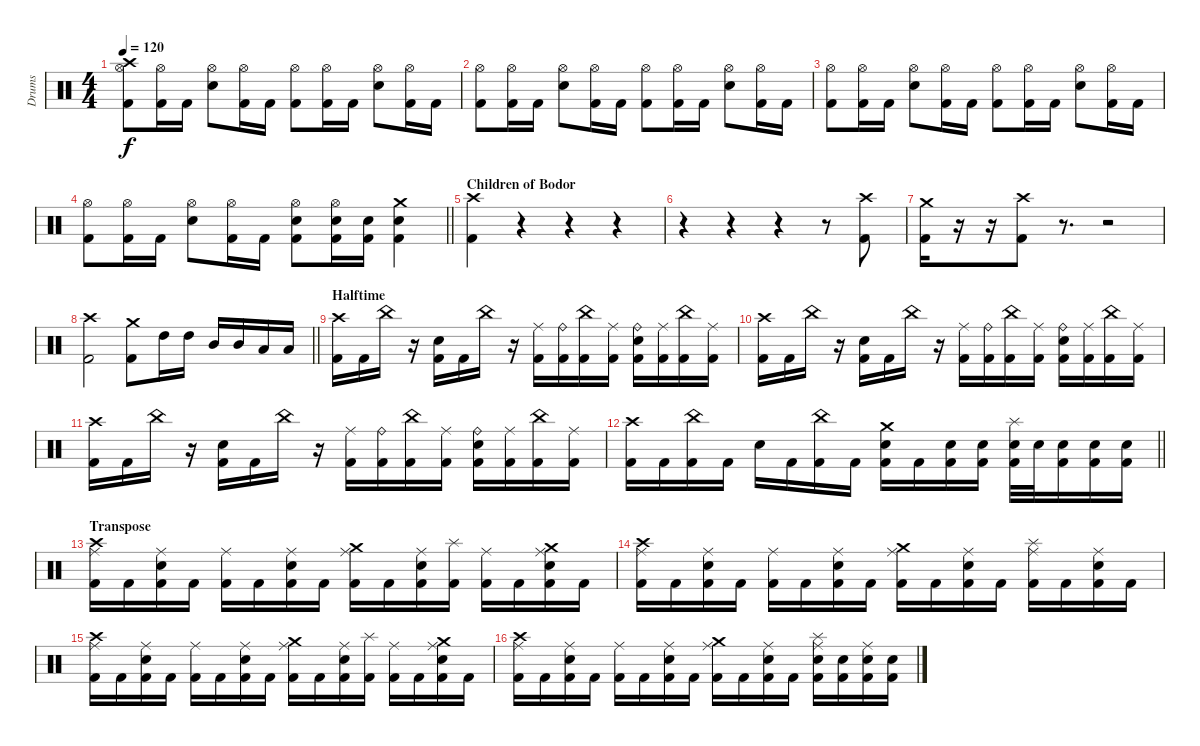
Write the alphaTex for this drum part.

\track ("Drums" "Drums") {instrument percussion}
\staff {score}
\articulation defaults
\ts (4 4)
\tempo 120
\clef neutral
\ks c
("Crash high (hit)" "Hi-Hat (open)" "Kick (hit) 2").8{dy f} ("Hi-Hat (open)" "Kick (hit) 2").16 "Kick (hit) 2".16 ("Hi-Hat (open)" "Snare (hit) 2").8 ("Hi-Hat (open)" "Kick (hit) 2").16 "Kick (hit) 2".16 ("Hi-Hat (open)" "Kick (hit) 2").8 ("Hi-Hat (open)" "Kick (hit) 2").16 "Kick (hit) 2".16 ("Hi-Hat (open)" "Snare (hit) 2").8 ("Hi-Hat (open)" "Kick (hit) 2").16 "Kick (hit) 2".16 |
("Hi-Hat (open)" "Kick (hit) 2").8 ("Hi-Hat (open)" "Kick (hit) 2").16 "Kick (hit) 2".16 ("Hi-Hat (open)" "Snare (hit) 2").8 ("Hi-Hat (open)" "Kick (hit) 2").16 "Kick (hit) 2".16 ("Hi-Hat (open)" "Kick (hit) 2").8 ("Hi-Hat (open)" "Kick (hit) 2").16 "Kick (hit) 2".16 ("Hi-Hat (open)" "Snare (hit) 2").8 ("Hi-Hat (open)" "Kick (hit) 2").16 "Kick (hit) 2".16 |
("Hi-Hat (open)" "Kick (hit) 2").8 ("Hi-Hat (open)" "Kick (hit) 2").16 "Kick (hit) 2".16 ("Hi-Hat (open)" "Snare (hit) 2").8 ("Hi-Hat (open)" "Kick (hit) 2").16 "Kick (hit) 2".16 ("Hi-Hat (open)" "Kick (hit) 2").8 ("Hi-Hat (open)" "Kick (hit) 2").16 "Kick (hit) 2".16 ("Hi-Hat (open)" "Snare (hit) 2").8 ("Hi-Hat (open)" "Kick (hit) 2").16 "Kick (hit) 2".16 |
\barLineRight lightlight
("Hi-Hat (open)" "Kick (hit) 2").8 ("Hi-Hat (open)" "Kick (hit) 2").16 "Kick (hit) 2".16 ("Hi-Hat (open)" "Snare (hit) 2").8 ("Hi-Hat (open)" "Kick (hit) 2").16 "Kick (hit) 2".16 ("Hi-Hat (open)" "Snare (hit) 2" "Kick (hit) 2").8 ("Hi-Hat (open)" "Snare (hit) 2" "Kick (hit) 2").16 ("Snare (hit) 2" "Kick (hit) 2").16 ("Crash medium (hit)" "Snare (hit) 2" "Kick (hit) 2").4 |
\section ("" "Children of Bodor")
("Crash high (hit)" "Kick (hit) 2").4 r.4 r.4 r.4 |
r.4 r.4 r.4 r.8 ("Crash high (hit)" "Kick (hit) 2").8 |
("Crash medium (hit)" "Kick (hit) 2").16 r.16 r.16 ("Crash high (hit)" "Kick (hit) 2").8 r.8{d} r.2 |
\barLineRight lightlight
("Crash high (hit)" "Kick (hit) 2").2 ("Crash medium (hit)" "Kick (hit) 2").8 "High Tom (hit)".16 "High Tom (hit)".16 "Mid Tom (hit)".16 "Mid Tom (hit)".16 "Low Tom (hit)".16 "Low Tom (hit)".16 |
\section ("" "Halftime")
("Crash high (hit)" "Kick (hit) 2").16 "Kick (hit) 2".16 "China (hit)".16 r.16 ("Snare (hit) 2" "Kick (hit) 2").16 "Kick (hit) 2".16 "China (hit)".16 r.16 ("Ride (middle)" "Kick (hit) 2").16 ("Ride (bell)" "Kick (hit) 2").16 ("China (hit)" "Kick (hit) 2").16 ("Ride (middle)" "Kick (hit) 2").16 ("Ride (bell)" "Snare (hit) 2" "Kick (hit) 2").16 ("Ride (middle)" "Kick (hit) 2").16 ("China (hit)" "Kick (hit) 2").16 ("Ride (middle)" "Kick (hit) 2").16 |
("Crash high (hit)" "Kick (hit) 2").16 "Kick (hit) 2".16 "China (hit)".16 r.16 ("Snare (hit) 2" "Kick (hit) 2").16 "Kick (hit) 2".16 "China (hit)".16 r.16 ("Ride (middle)" "Kick (hit) 2").16 ("Ride (bell)" "Kick (hit) 2").16 ("China (hit)" "Kick (hit) 2").16 ("Ride (middle)" "Kick (hit) 2").16 ("Ride (bell)" "Snare (hit) 2" "Kick (hit) 2").16 ("Ride (middle)" "Kick (hit) 2").16 ("China (hit)" "Kick (hit) 2").16 ("Ride (middle)" "Kick (hit) 2").16 |
("Crash high (hit)" "Kick (hit) 2").16 "Kick (hit) 2".16 "China (hit)".16 r.16 ("Snare (hit) 2" "Kick (hit) 2").16 "Kick (hit) 2".16 "China (hit)".16 r.16 ("Ride (middle)" "Kick (hit) 2").16 ("Ride (bell)" "Kick (hit) 2").16 ("China (hit)" "Kick (hit) 2").16 ("Ride (middle)" "Kick (hit) 2").16 ("Ride (bell)" "Snare (hit) 2" "Kick (hit) 2").16 ("Ride (middle)" "Kick (hit) 2").16 ("China (hit)" "Kick (hit) 2").16 ("Ride (middle)" "Kick (hit) 2").16 |
\barLineRight lightlight
("Crash high (hit)" "Kick (hit) 2").16 "Kick (hit) 2".16 ("China (hit)" "Kick (hit) 2").16 "Kick (hit) 2".16 "Snare (hit) 2".16 "Kick (hit) 2".16 ("China (hit)" "Kick (hit) 2").16 "Kick (hit) 2".16 ("Crash medium (hit)" "Snare (hit) 2" "Kick (hit) 2").16 "Kick (hit) 2".16 ("Snare (hit) 2" "Kick (hit) 2").16 ("Snare (hit) 2" "Kick (hit) 2").16 ("Splash (hit)" "Snare (hit) 2" "Kick (hit) 2").32 "Snare (hit) 2".32 ("Snare (hit) 2" "Kick (hit) 2").16 ("Snare (hit) 2" "Kick (hit) 2").16 ("Snare (hit) 2" "Kick (hit) 2").16 |
\section ("" "Transpose")
("Crash high (hit)" "Ride (middle)" "Kick (hit) 2").16 "Kick (hit) 2".16 ("Ride (middle)" "Snare (hit) 2" "Kick (hit) 2").16 "Kick (hit) 2".16 ("Ride (middle)" "Kick (hit) 2").16 "Kick (hit) 2".16 ("Ride (middle)" "Snare (hit) 2" "Kick (hit) 2").16 "Kick (hit) 2".16 ("Crash medium (hit)" "Ride (middle)" "Kick (hit) 2").16 "Kick (hit) 2".16 ("Ride (middle)" "Snare (hit) 2" "Kick (hit) 2").16 ("Splash (hit)" "Kick (hit) 2").16 ("Ride (middle)" "Kick (hit) 2").16 "Kick (hit) 2".16 ("Crash medium (hit)" "Ride (middle)" "Snare (hit) 2" "Kick (hit) 2").16 "Kick (hit) 2".16 |
("Crash high (hit)" "Ride (middle)" "Kick (hit) 2").16 "Kick (hit) 2".16 ("Ride (middle)" "Snare (hit) 2" "Kick (hit) 2").16 "Kick (hit) 2".16 ("Ride (middle)" "Kick (hit) 2").16 "Kick (hit) 2".16 ("Ride (middle)" "Snare (hit) 2" "Kick (hit) 2").16 "Kick (hit) 2".16 ("Crash medium (hit)" "Ride (middle)" "Kick (hit) 2").16 "Kick (hit) 2".16 ("Ride (middle)" "Snare (hit) 2" "Kick (hit) 2").16 "Kick (hit) 2".16 ("Splash (hit)" "Ride (middle)" "Kick (hit) 2").16 "Kick (hit) 2".16 ("Ride (middle)" "Snare (hit) 2" "Kick (hit) 2").16 "Kick (hit) 2".16 |
("Crash high (hit)" "Ride (middle)" "Kick (hit) 2").16 "Kick (hit) 2".16 ("Ride (middle)" "Snare (hit) 2" "Kick (hit) 2").16 "Kick (hit) 2".16 ("Ride (middle)" "Kick (hit) 2").16 "Kick (hit) 2".16 ("Ride (middle)" "Snare (hit) 2" "Kick (hit) 2").16 "Kick (hit) 2".16 ("Crash medium (hit)" "Ride (middle)" "Kick (hit) 2").16 "Kick (hit) 2".16 ("Ride (middle)" "Snare (hit) 2" "Kick (hit) 2").16 ("Splash (hit)" "Kick (hit) 2").16 ("Ride (middle)" "Kick (hit) 2").16 "Kick (hit) 2".16 ("Crash medium (hit)" "Ride (middle)" "Snare (hit) 2" "Kick (hit) 2").16 "Kick (hit) 2".16 |
("Crash high (hit)" "Ride (middle)" "Kick (hit) 2").16 "Kick (hit) 2".16 ("Ride (middle)" "Snare (hit) 2" "Kick (hit) 2").16 "Kick (hit) 2".16 ("Ride (middle)" "Kick (hit) 2").16 "Kick (hit) 2".16 ("Ride (middle)" "Snare (hit) 2" "Kick (hit) 2").16 "Kick (hit) 2".16 ("Crash medium (hit)" "Ride (middle)" "Kick (hit) 2").16 "Kick (hit) 2".16 ("Ride (middle)" "Snare (hit) 2" "Kick (hit) 2").16 "Kick (hit) 2".16 ("Splash (hit)" "Ride (middle)" "Snare (hit) 2" "Kick (hit) 2").16 ("Snare (hit) 2" "Kick (hit) 2").16 ("Ride (middle)" "Snare (hit) 2" "Kick (hit) 2").16 ("Snare (hit) 2" "Kick (hit) 2").16
